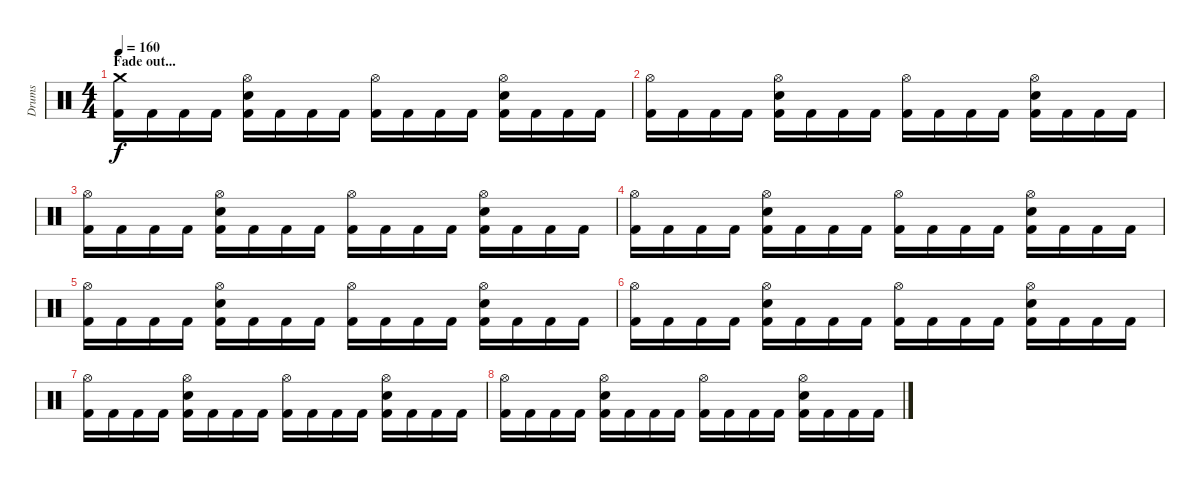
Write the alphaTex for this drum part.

\track ("Drums" "Drums") {instrument percussion}
\staff {score}
\articulation defaults
\ts (4 4)
\section ("" "Fade out...")
\tempo 160
\clef neutral
\ks c
("Kick (hit) 2" "Crash medium (hit)").16{dy f} "Kick (hit) 2".16 "Kick (hit) 2".16 "Kick (hit) 2".16 ("Kick (hit) 2" "Electric Snare (hit)" "Hi-Hat (open)").16 "Kick (hit) 2".16 "Kick (hit) 2".16 "Kick (hit) 2".16 ("Kick (hit) 2" "Hi-Hat (open)").16 "Kick (hit) 2".16 "Kick (hit) 2".16 "Kick (hit) 2".16 ("Kick (hit) 2" "Electric Snare (hit)" "Hi-Hat (open)").16 "Kick (hit) 2".16 "Kick (hit) 2".16 "Kick (hit) 2".16 |
("Kick (hit) 2" "Hi-Hat (open)").16 "Kick (hit) 2".16 "Kick (hit) 2".16 "Kick (hit) 2".16 ("Kick (hit) 2" "Electric Snare (hit)" "Hi-Hat (open)").16 "Kick (hit) 2".16 "Kick (hit) 2".16 "Kick (hit) 2".16 ("Kick (hit) 2" "Hi-Hat (open)").16 "Kick (hit) 2".16 "Kick (hit) 2".16 "Kick (hit) 2".16 ("Kick (hit) 2" "Electric Snare (hit)" "Hi-Hat (open)").16 "Kick (hit) 2".16 "Kick (hit) 2".16 "Kick (hit) 2".16 |
("Kick (hit) 2" "Hi-Hat (open)").16 "Kick (hit) 2".16 "Kick (hit) 2".16 "Kick (hit) 2".16 ("Kick (hit) 2" "Electric Snare (hit)" "Hi-Hat (open)").16 "Kick (hit) 2".16 "Kick (hit) 2".16 "Kick (hit) 2".16 ("Kick (hit) 2" "Hi-Hat (open)").16 "Kick (hit) 2".16 "Kick (hit) 2".16 "Kick (hit) 2".16 ("Kick (hit) 2" "Electric Snare (hit)" "Hi-Hat (open)").16 "Kick (hit) 2".16 "Kick (hit) 2".16 "Kick (hit) 2".16 |
("Kick (hit) 2" "Hi-Hat (open)").16 "Kick (hit) 2".16 "Kick (hit) 2".16 "Kick (hit) 2".16 ("Kick (hit) 2" "Electric Snare (hit)" "Hi-Hat (open)").16 "Kick (hit) 2".16 "Kick (hit) 2".16 "Kick (hit) 2".16 ("Kick (hit) 2" "Hi-Hat (open)").16 "Kick (hit) 2".16 "Kick (hit) 2".16 "Kick (hit) 2".16 ("Kick (hit) 2" "Electric Snare (hit)" "Hi-Hat (open)").16 "Kick (hit) 2".16 "Kick (hit) 2".16 "Kick (hit) 2".16 |
("Kick (hit) 2" "Hi-Hat (open)").16 "Kick (hit) 2".16 "Kick (hit) 2".16 "Kick (hit) 2".16 ("Kick (hit) 2" "Electric Snare (hit)" "Hi-Hat (open)").16 "Kick (hit) 2".16 "Kick (hit) 2".16 "Kick (hit) 2".16 ("Kick (hit) 2" "Hi-Hat (open)").16 "Kick (hit) 2".16 "Kick (hit) 2".16 "Kick (hit) 2".16 ("Kick (hit) 2" "Electric Snare (hit)" "Hi-Hat (open)").16 "Kick (hit) 2".16 "Kick (hit) 2".16 "Kick (hit) 2".16 |
("Kick (hit) 2" "Hi-Hat (open)").16 "Kick (hit) 2".16 "Kick (hit) 2".16 "Kick (hit) 2".16 ("Kick (hit) 2" "Electric Snare (hit)" "Hi-Hat (open)").16 "Kick (hit) 2".16 "Kick (hit) 2".16 "Kick (hit) 2".16 ("Kick (hit) 2" "Hi-Hat (open)").16 "Kick (hit) 2".16 "Kick (hit) 2".16 "Kick (hit) 2".16 ("Kick (hit) 2" "Electric Snare (hit)" "Hi-Hat (open)").16 "Kick (hit) 2".16 "Kick (hit) 2".16 "Kick (hit) 2".16 |
("Kick (hit) 2" "Hi-Hat (open)").16 "Kick (hit) 2".16 "Kick (hit) 2".16 "Kick (hit) 2".16 ("Kick (hit) 2" "Electric Snare (hit)" "Hi-Hat (open)").16 "Kick (hit) 2".16 "Kick (hit) 2".16 "Kick (hit) 2".16 ("Kick (hit) 2" "Hi-Hat (open)").16 "Kick (hit) 2".16 "Kick (hit) 2".16 "Kick (hit) 2".16 ("Kick (hit) 2" "Electric Snare (hit)" "Hi-Hat (open)").16 "Kick (hit) 2".16 "Kick (hit) 2".16 "Kick (hit) 2".16 |
("Kick (hit) 2" "Hi-Hat (open)").16 "Kick (hit) 2".16 "Kick (hit) 2".16 "Kick (hit) 2".16 ("Kick (hit) 2" "Electric Snare (hit)" "Hi-Hat (open)").16 "Kick (hit) 2".16 "Kick (hit) 2".16 "Kick (hit) 2".16 ("Kick (hit) 2" "Hi-Hat (open)").16 "Kick (hit) 2".16 "Kick (hit) 2".16 "Kick (hit) 2".16 ("Kick (hit) 2" "Electric Snare (hit)" "Hi-Hat (open)").16 "Kick (hit) 2".16 "Kick (hit) 2".16 "Kick (hit) 2".16
